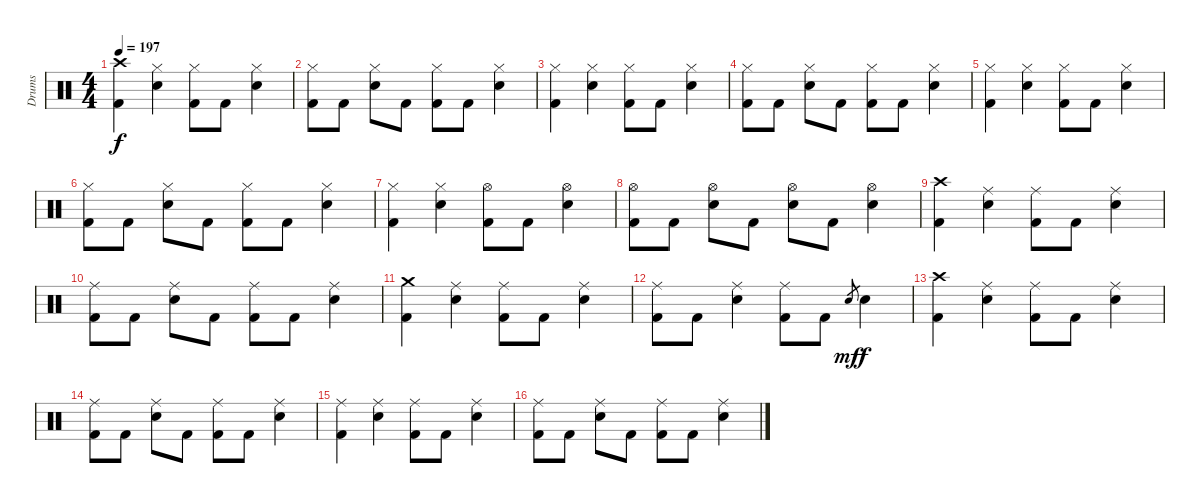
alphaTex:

\track ("Drums" "Drums") {instrument percussion}
\staff {score}
\articulation defaults
\ts (4 4)
\tempo 197
\clef neutral
\ks c
("Crash high (hit)" "Kick (hit) 2").4{dy f} ("Hi-Hat (closed)" "Electric Snare (hit)").4 ("Hi-Hat (closed)" "Kick (hit) 2").8 "Kick (hit) 2".8 ("Hi-Hat (closed)" "Electric Snare (hit)").4 |
("Hi-Hat (closed)" "Kick (hit) 2").8 "Kick (hit) 2".8 ("Hi-Hat (closed)" "Electric Snare (hit)").8 "Kick (hit) 2".8 ("Hi-Hat (closed)" "Kick (hit) 2").8 "Kick (hit) 2".8 ("Hi-Hat (closed)" "Electric Snare (hit)").4 |
("Hi-Hat (closed)" "Kick (hit) 2").4 ("Hi-Hat (closed)" "Electric Snare (hit)").4 ("Hi-Hat (closed)" "Kick (hit) 2").8 "Kick (hit) 2".8 ("Hi-Hat (closed)" "Electric Snare (hit)").4 |
("Hi-Hat (closed)" "Kick (hit) 2").8 "Kick (hit) 2".8 ("Hi-Hat (closed)" "Electric Snare (hit)").8 "Kick (hit) 2".8 ("Hi-Hat (closed)" "Kick (hit) 2").8 "Kick (hit) 2".8 ("Hi-Hat (closed)" "Electric Snare (hit)").4 |
("Hi-Hat (closed)" "Kick (hit) 2").4 ("Hi-Hat (closed)" "Electric Snare (hit)").4 ("Hi-Hat (closed)" "Kick (hit) 2").8 "Kick (hit) 2".8 ("Hi-Hat (closed)" "Electric Snare (hit)").4 |
("Hi-Hat (closed)" "Kick (hit) 2").8 "Kick (hit) 2".8 ("Hi-Hat (closed)" "Electric Snare (hit)").8 "Kick (hit) 2".8 ("Hi-Hat (closed)" "Kick (hit) 2").8 "Kick (hit) 2".8 ("Hi-Hat (closed)" "Electric Snare (hit)").4 |
("Hi-Hat (closed)" "Kick (hit) 2").4 ("Hi-Hat (closed)" "Electric Snare (hit)").4 ("Hi-Hat (open)" "Kick (hit) 2").8 "Kick (hit) 2".8 ("Hi-Hat (open)" "Electric Snare (hit)").4 |
("Hi-Hat (open)" "Kick (hit) 2").8 "Kick (hit) 2".8 ("Hi-Hat (open)" "Electric Snare (hit)").8 "Kick (hit) 2".8 ("Hi-Hat (open)" "Electric Snare (hit)").8 "Kick (hit) 2".8 ("Hi-Hat (open)" "Electric Snare (hit)").4 |
("Crash high (hit)" "Kick (hit) 2").4 ("Ride (middle)" "Electric Snare (hit)").4 ("Ride (middle)" "Kick (hit) 2").8 "Kick (hit) 2".8 ("Ride (middle)" "Electric Snare (hit)").4 |
("Ride (middle)" "Kick (hit) 2").8 "Kick (hit) 2".8 ("Ride (middle)" "Electric Snare (hit)").8 "Kick (hit) 2".8 ("Ride (middle)" "Kick (hit) 2").8 "Kick (hit) 2".8 ("Ride (middle)" "Electric Snare (hit)").4 |
("Crash medium (hit)" "Kick (hit) 2").4 ("Ride (middle)" "Electric Snare (hit)").4 ("Ride (middle)" "Kick (hit) 2").8 "Kick (hit) 2".8 ("Ride (middle)" "Electric Snare (hit)").4 |
("Ride (middle)" "Kick (hit) 2").8 "Kick (hit) 2".8 ("Ride (middle)" "Electric Snare (hit)").4 ("Ride (middle)" "Kick (hit) 2").8 "Kick (hit) 2".8 "Electric Snare (hit)".8{gr dy mf} "Electric Snare (hit)".4{dy f} |
("Crash high (hit)" "Kick (hit) 2").4 ("Ride (middle)" "Electric Snare (hit)").4 ("Ride (middle)" "Kick (hit) 2").8 "Kick (hit) 2".8 ("Ride (middle)" "Electric Snare (hit)").4 |
("Ride (middle)" "Kick (hit) 2").8 "Kick (hit) 2".8 ("Ride (middle)" "Electric Snare (hit)").8 "Kick (hit) 2".8 ("Ride (middle)" "Kick (hit) 2").8 "Kick (hit) 2".8 ("Ride (middle)" "Electric Snare (hit)").4 |
("Ride (middle)" "Kick (hit) 2").4 ("Ride (middle)" "Electric Snare (hit)").4 ("Ride (middle)" "Kick (hit) 2").8 "Kick (hit) 2".8 ("Ride (middle)" "Electric Snare (hit)").4 |
("Ride (middle)" "Kick (hit) 2").8 "Kick (hit) 2".8 ("Ride (middle)" "Electric Snare (hit)").8 "Kick (hit) 2".8 ("Ride (middle)" "Kick (hit) 2").8 "Kick (hit) 2".8 ("Ride (middle)" "Electric Snare (hit)").4
